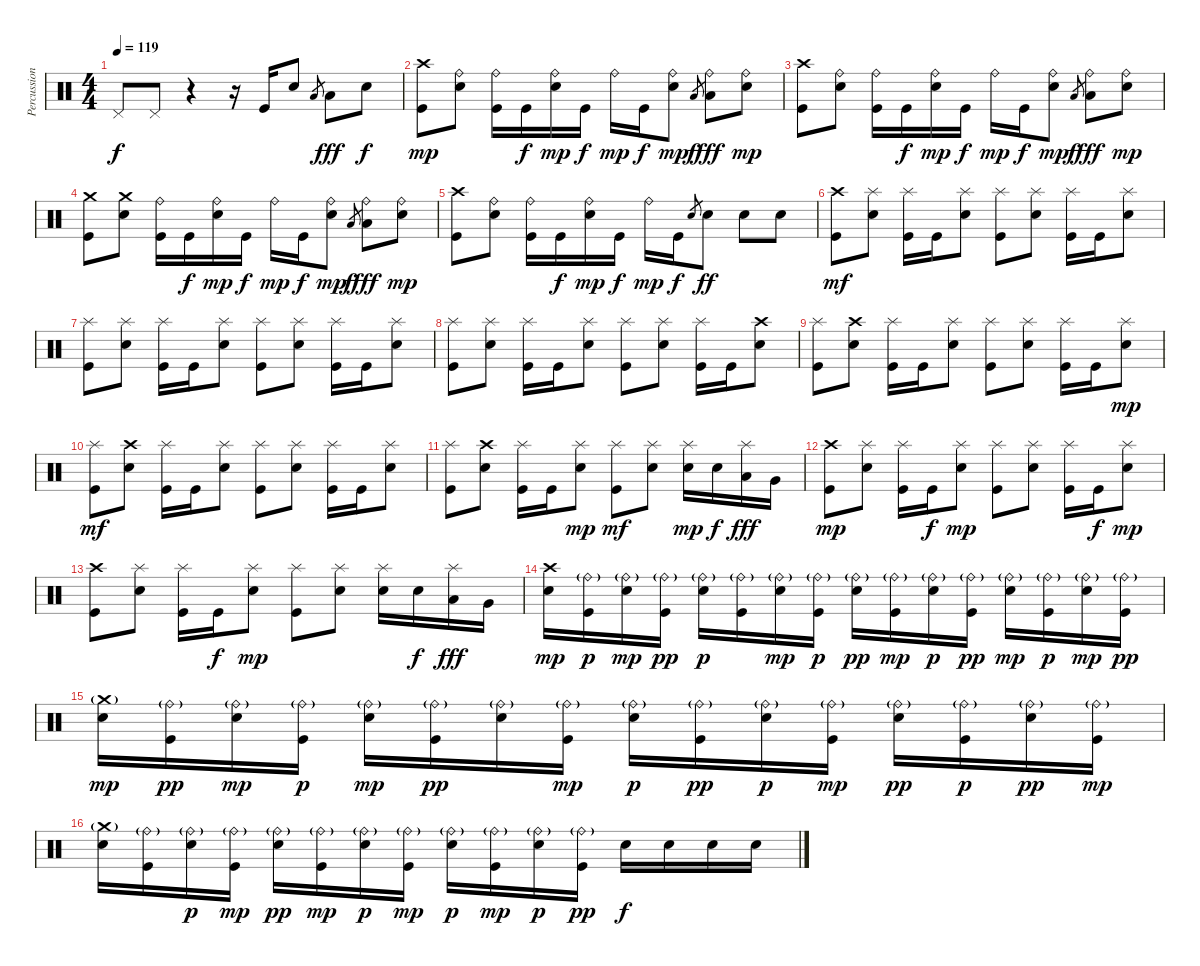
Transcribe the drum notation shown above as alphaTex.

\track ("Percussion" "Percussion") {instrument percussion}
\staff {score}
\articulation defaults
\ts (4 4)
\tempo 119
\clef neutral
\ks c "Pedal Hi-Hat (hit)".8{dy f} "Pedal Hi-Hat (hit)".8
r.4 r.16 "Kick (hit)".16 "Electric Snare (hit)".8 "Low Tom (hit)".8{gr} "Low Tom (hit)".8{dy fff} "Electric Snare (hit)".8{dy f} |
("Crash high (hit)" "Kick (hit)").8{dy mp} ("Ride (bell)" "Electric Snare (hit)").8 ("Ride (bell)" "Kick (hit)").16 "Kick (hit)".16{dy f} ("Ride (bell)" "Electric Snare (hit)").16{dy mp} "Kick (hit)".16{dy f} "Ride (bell)".16{dy mp} "Kick (hit)".16{dy f} ("Ride (bell)" "Electric Snare (hit)").8{dy mp} "Low Tom (hit)".8{gr dy f} ("Ride (bell)" "Low Tom (hit)").8{dy fff} ("Ride (bell)" "Electric Snare (hit)").8{dy mp} |
("Crash high (hit)" "Kick (hit)").8 ("Ride (bell)" "Electric Snare (hit)").8 ("Ride (bell)" "Kick (hit)").16 "Kick (hit)".16{dy f} ("Ride (bell)" "Electric Snare (hit)").16{dy mp} "Kick (hit)".16{dy f} "Ride (bell)".16{dy mp} "Kick (hit)".16{dy f} ("Ride (bell)" "Electric Snare (hit)").8{dy mp} "Low Tom (hit)".8{gr dy f} ("Ride (bell)" "Low Tom (hit)").8{dy fff} ("Ride (bell)" "Electric Snare (hit)").8{dy mp} |
("Crash medium (hit)" "Kick (hit)").8 ("Crash medium (hit)" "Electric Snare (hit)").8 ("Ride (bell)" "Kick (hit)").16 "Kick (hit)".16{dy f} ("Ride (bell)" "Electric Snare (hit)").16{dy mp} "Kick (hit)".16{dy f} "Ride (bell)".16{dy mp} "Kick (hit)".16{dy f} ("Ride (bell)" "Electric Snare (hit)").8{dy mp} "Low Tom (hit)".8{gr dy f} ("Ride (bell)" "Low Tom (hit)").8{dy fff} ("Ride (bell)" "Electric Snare (hit)").8{dy mp} |
("Crash high (hit)" "Kick (hit)").8 ("Ride (bell)" "Electric Snare (hit)").8 ("Ride (bell)" "Kick (hit)").16 "Kick (hit)".16{dy f} ("Ride (bell)" "Electric Snare (hit)").16{dy mp} "Kick (hit)".16{dy f} "Ride (bell)".16{dy mp} "Kick (hit)".16{dy f} "Electric Snare (hit)".8{gr} "Electric Snare (hit)".8{dy ff} "Electric Snare (hit)".8 "Electric Snare (hit)".8 |
("Crash high (hit)" "Kick (hit)").8{dy mf} ("Splash (hit)" "Electric Snare (hit)").8 ("Splash (hit)" "Kick (hit)").16 "Kick (hit)".16 ("Splash (hit)" "Electric Snare (hit)").8 ("Splash (hit)" "Kick (hit)").8 ("Splash (hit)" "Electric Snare (hit)").8 ("Splash (hit)" "Kick (hit)").16 "Kick (hit)".16 ("Splash (hit)" "Electric Snare (hit)").8 |
("Splash (hit)" "Kick (hit)").8 ("Splash (hit)" "Electric Snare (hit)").8 ("Splash (hit)" "Kick (hit)").16 "Kick (hit)".16 ("Splash (hit)" "Electric Snare (hit)").8 ("Splash (hit)" "Kick (hit)").8 ("Splash (hit)" "Electric Snare (hit)").8 ("Splash (hit)" "Kick (hit)").16 "Kick (hit)".16 ("Splash (hit)" "Electric Snare (hit)").8 |
("Splash (hit)" "Kick (hit)").8 ("Splash (hit)" "Electric Snare (hit)").8 ("Splash (hit)" "Kick (hit)").16 "Kick (hit)".16 ("Splash (hit)" "Electric Snare (hit)").8 ("Splash (hit)" "Kick (hit)").8 ("Splash (hit)" "Electric Snare (hit)").8 ("Splash (hit)" "Kick (hit)").16 "Kick (hit)".16 ("Crash high (hit)" "Electric Snare (hit)").8 |
("Splash (hit)" "Kick (hit)").8 ("Crash high (hit)" "Electric Snare (hit)").8 ("Splash (hit)" "Kick (hit)").16 "Kick (hit)".16 ("Splash (hit)" "Electric Snare (hit)").8 ("Splash (hit)" "Kick (hit)").8 ("Splash (hit)" "Electric Snare (hit)").8 ("Splash (hit)" "Kick (hit)").16 "Kick (hit)".16 ("Splash (hit)" "Electric Snare (hit)").8{dy mp} |
("Splash (hit)" "Kick (hit)").8{dy mf} ("Crash high (hit)" "Electric Snare (hit)").8 ("Splash (hit)" "Kick (hit)").16 "Kick (hit)".16 ("Splash (hit)" "Electric Snare (hit)").8 ("Splash (hit)" "Kick (hit)").8 ("Splash (hit)" "Electric Snare (hit)").8 ("Splash (hit)" "Kick (hit)").16 "Kick (hit)".16 ("Splash (hit)" "Electric Snare (hit)").8 |
("Splash (hit)" "Kick (hit)").8 ("Crash high (hit)" "Electric Snare (hit)").8 ("Splash (hit)" "Kick (hit)").16 "Kick (hit)".16 ("Splash (hit)" "Electric Snare (hit)").8{dy mp} ("Splash (hit)" "Kick (hit)").8{dy mf} ("Splash (hit)" "Electric Snare (hit)").8 ("Splash (hit)" "Electric Snare (hit)").16{dy mp} "Electric Snare (hit)".16{dy f} ("Splash (hit)" "Low Tom (hit)").16{dy fff} "Very Low Tom (hit)".16 |
("Crash high (hit)" "Kick (hit)").8{dy mp} ("Splash (hit)" "Electric Snare (hit)").8 ("Splash (hit)" "Kick (hit)").16 "Kick (hit)".16{dy f} ("Splash (hit)" "Electric Snare (hit)").8{dy mp} ("Splash (hit)" "Kick (hit)").8 ("Splash (hit)" "Electric Snare (hit)").8 ("Splash (hit)" "Kick (hit)").16 "Kick (hit)".16{dy f} ("Splash (hit)" "Electric Snare (hit)").8{dy mp} |
("Crash high (hit)" "Kick (hit)").8 ("Splash (hit)" "Electric Snare (hit)").8 ("Splash (hit)" "Kick (hit)").16 "Kick (hit)".16{dy f} ("Splash (hit)" "Electric Snare (hit)").8{dy mp} ("Splash (hit)" "Kick (hit)").8 ("Splash (hit)" "Electric Snare (hit)").8 ("Splash (hit)" "Electric Snare (hit)").16 "Electric Snare (hit)".16{dy f} ("Splash (hit)" "Low Tom (hit)").16{dy fff} "Very Low Tom (hit)".16 |
("Crash high (hit)" "Electric Snare (hit)").16{dy mp} ("Ride (bell)"{g} "Kick (hit)").16{dy p} ("Ride (bell)"{g} "Electric Snare (hit)").16{dy mp} ("Ride (bell)"{g} "Kick (hit)").16{dy pp} ("Ride (bell)"{g} "Electric Snare (hit)").16{dy p} ("Ride (bell)"{g} "Kick (hit)").16 ("Ride (bell)"{g} "Electric Snare (hit)").16{dy mp} ("Ride (bell)"{g} "Kick (hit)").16{dy p} ("Ride (bell)"{g} "Electric Snare (hit)").16{dy pp} ("Ride (bell)"{g} "Kick (hit)").16{dy mp} ("Ride (bell)"{g} "Electric Snare (hit)").16{dy p} ("Ride (bell)"{g} "Kick (hit)").16{dy pp} ("Ride (bell)"{g} "Electric Snare (hit)").16{dy mp} ("Ride (bell)"{g} "Kick (hit)").16{dy p} ("Ride (bell)"{g} "Electric Snare (hit)").16{dy mp} ("Ride (bell)"{g} "Kick (hit)").16{dy pp} |
("Crash medium (hit)"{g} "Electric Snare (hit)").16{dy mp} ("Ride (bell)"{g} "Kick (hit)").16{dy pp} ("Ride (bell)"{g} "Electric Snare (hit)").16{dy mp} ("Ride (bell)"{g} "Kick (hit)").16{dy p} ("Ride (bell)"{g} "Electric Snare (hit)").16{dy mp} ("Ride (bell)"{g} "Kick (hit)").16{dy pp} ("Ride (bell)"{g} "Electric Snare (hit)").16 ("Ride (bell)"{g} "Kick (hit)").16{dy mp} ("Ride (bell)"{g} "Electric Snare (hit)").16{dy p} ("Ride (bell)"{g} "Kick (hit)").16{dy pp} ("Ride (bell)"{g} "Electric Snare (hit)").16{dy p} ("Ride (bell)"{g} "Kick (hit)").16{dy mp} ("Ride (bell)"{g} "Electric Snare (hit)").16{dy pp} ("Ride (bell)"{g} "Kick (hit)").16{dy p} ("Ride (bell)"{g} "Electric Snare (hit)").16{dy pp} ("Ride (bell)"{g} "Kick (hit)").16{dy mp} |
("Crash medium (hit)"{g} "Electric Snare (hit)").16 ("Ride (bell)"{g} "Kick (hit)").16 ("Ride (bell)"{g} "Electric Snare (hit)").16{dy p} ("Ride (bell)"{g} "Kick (hit)").16{dy mp} ("Ride (bell)"{g} "Electric Snare (hit)").16{dy pp} ("Ride (bell)"{g} "Kick (hit)").16{dy mp} ("Ride (bell)"{g} "Electric Snare (hit)").16{dy p} ("Ride (bell)"{g} "Kick (hit)").16{dy mp} ("Ride (bell)"{g} "Electric Snare (hit)").16{dy p} ("Ride (bell)"{g} "Kick (hit)").16{dy mp} ("Ride (bell)"{g} "Electric Snare (hit)").16{dy p} ("Ride (bell)"{g} "Kick (hit)").16{dy pp} "Electric Snare (hit)".16{dy f} "Electric Snare (hit)".16 "Electric Snare (hit)".16 "Electric Snare (hit)".16
